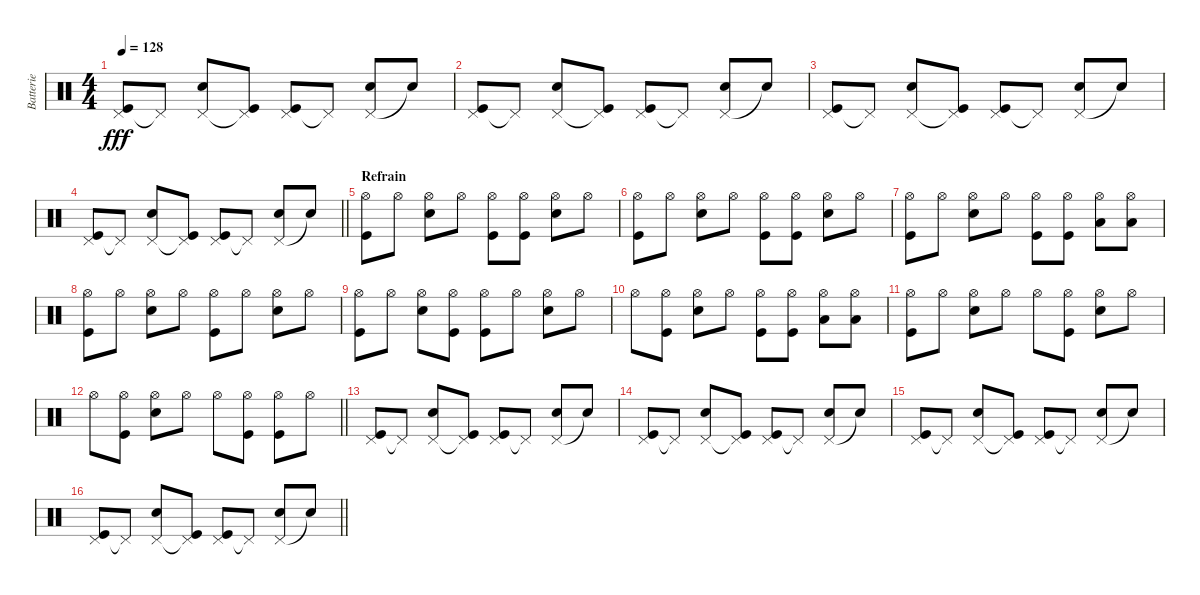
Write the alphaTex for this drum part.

\track ("Batterie" "Batterie") {instrument percussion}
\staff {score}
\articulation defaults
\ts (4 4)
\tempo 128
\clef neutral
\ks c
("Pedal Hi-Hat (hit)" "Kick (hit)").8{dy fff} "Pedal Hi-Hat (hit)"{t}.8 ("Pedal Hi-Hat (hit)" "Electric Snare (hit)").8 ("Pedal Hi-Hat (hit)"{t} "Kick (hit)").8 ("Pedal Hi-Hat (hit)" "Kick (hit)").8 "Pedal Hi-Hat (hit)"{t}.8 ("Pedal Hi-Hat (hit)" "Electric Snare (hit)").8 "Snare (hit)"{t}.8 |
("Pedal Hi-Hat (hit)" "Kick (hit)").8 "Pedal Hi-Hat (hit)"{t}.8 ("Pedal Hi-Hat (hit)" "Electric Snare (hit)").8 ("Pedal Hi-Hat (hit)"{t} "Kick (hit)").8 ("Pedal Hi-Hat (hit)" "Kick (hit)").8 "Pedal Hi-Hat (hit)"{t}.8 ("Pedal Hi-Hat (hit)" "Electric Snare (hit)").8 "Snare (hit)"{t}.8 |
("Pedal Hi-Hat (hit)" "Kick (hit)").8 "Pedal Hi-Hat (hit)"{t}.8 ("Pedal Hi-Hat (hit)" "Electric Snare (hit)").8 ("Pedal Hi-Hat (hit)"{t} "Kick (hit)").8 ("Pedal Hi-Hat (hit)" "Kick (hit)").8 "Pedal Hi-Hat (hit)"{t}.8 ("Pedal Hi-Hat (hit)" "Electric Snare (hit)").8 "Snare (hit)"{t}.8 |
\barLineRight lightlight
("Pedal Hi-Hat (hit)" "Kick (hit)").8 "Pedal Hi-Hat (hit)"{t}.8 ("Pedal Hi-Hat (hit)" "Electric Snare (hit)").8 ("Pedal Hi-Hat (hit)"{t} "Kick (hit)").8 ("Pedal Hi-Hat (hit)" "Kick (hit)").8 "Pedal Hi-Hat (hit)"{t}.8 ("Pedal Hi-Hat (hit)" "Electric Snare (hit)").8 "Snare (hit)"{t}.8 |
\section ("" "Refrain")
("Hi-Hat (open)" "Kick (hit)").8 "Hi-Hat (open)".8 ("Hi-Hat (open)" "Electric Snare (hit)").8 "Hi-Hat (open)".8 ("Hi-Hat (open)" "Kick (hit)").8 ("Hi-Hat (open)" "Kick (hit)").8 ("Hi-Hat (open)" "Electric Snare (hit)").8 "Hi-Hat (open)".8 |
("Hi-Hat (open)" "Kick (hit)").8 "Hi-Hat (open)".8 ("Hi-Hat (open)" "Electric Snare (hit)").8 "Hi-Hat (open)".8 ("Hi-Hat (open)" "Kick (hit)").8 ("Hi-Hat (open)" "Kick (hit)").8 ("Hi-Hat (open)" "Electric Snare (hit)").8 "Hi-Hat (open)".8 |
("Hi-Hat (open)" "Kick (hit)").8 "Hi-Hat (open)".8 ("Hi-Hat (open)" "Electric Snare (hit)").8 "Hi-Hat (open)".8 ("Hi-Hat (open)" "Kick (hit)").8 ("Hi-Hat (open)" "Kick (hit)").8 ("Hi-Hat (open)" "Low Tom (hit)").8 ("Hi-Hat (open)" "Low Tom (hit)").8 |
("Hi-Hat (open)" "Kick (hit)").8 "Hi-Hat (open)".8 ("Hi-Hat (open)" "Electric Snare (hit)").8 "Hi-Hat (open)".8 ("Hi-Hat (open)" "Kick (hit)").8 "Hi-Hat (open)".8 ("Hi-Hat (open)" "Electric Snare (hit)").8 "Hi-Hat (open)".8 |
("Hi-Hat (open)" "Kick (hit)").8 "Hi-Hat (open)".8 ("Hi-Hat (open)" "Electric Snare (hit)").8 ("Hi-Hat (open)" "Kick (hit)").8 ("Hi-Hat (open)" "Kick (hit)").8 "Hi-Hat (open)".8 ("Hi-Hat (open)" "Electric Snare (hit)").8 "Hi-Hat (open)".8 |
"Hi-Hat (open)".8 ("Hi-Hat (open)" "Kick (hit)").8 ("Hi-Hat (open)" "Electric Snare (hit)").8 "Hi-Hat (open)".8 ("Hi-Hat (open)" "Kick (hit)").8 ("Hi-Hat (open)" "Kick (hit)").8 ("Hi-Hat (open)" "Low Tom (hit)").8 ("Hi-Hat (open)" "Low Tom (hit)").8 |
("Hi-Hat (open)" "Kick (hit)").8 "Hi-Hat (open)".8 ("Hi-Hat (open)" "Electric Snare (hit)").8 "Hi-Hat (open)".8 "Hi-Hat (open)".8 ("Hi-Hat (open)" "Kick (hit)").8 ("Hi-Hat (open)" "Electric Snare (hit)").8 "Hi-Hat (open)".8 |
\barLineRight lightlight "Hi-Hat (open)".8
("Hi-Hat (open)" "Kick (hit)").8 ("Hi-Hat (open)" "Electric Snare (hit)").8 "Hi-Hat (open)".8 "Hi-Hat (open)".8 ("Hi-Hat (open)" "Kick (hit)").8 ("Hi-Hat (open)" "Kick (hit)").8 "Hi-Hat (open)".8 |
\section ("" "")
("Pedal Hi-Hat (hit)" "Kick (hit)").8 "Pedal Hi-Hat (hit)"{t}.8 ("Pedal Hi-Hat (hit)" "Electric Snare (hit)").8 ("Pedal Hi-Hat (hit)"{t} "Kick (hit)").8 ("Pedal Hi-Hat (hit)" "Kick (hit)").8 "Pedal Hi-Hat (hit)"{t}.8 ("Pedal Hi-Hat (hit)" "Electric Snare (hit)").8 "Snare (hit)"{t}.8 |
("Pedal Hi-Hat (hit)" "Kick (hit)").8 "Pedal Hi-Hat (hit)"{t}.8 ("Pedal Hi-Hat (hit)" "Electric Snare (hit)").8 ("Pedal Hi-Hat (hit)"{t} "Kick (hit)").8 ("Pedal Hi-Hat (hit)" "Kick (hit)").8 "Pedal Hi-Hat (hit)"{t}.8 ("Pedal Hi-Hat (hit)" "Electric Snare (hit)").8 "Snare (hit)"{t}.8 |
("Pedal Hi-Hat (hit)" "Kick (hit)").8 "Pedal Hi-Hat (hit)"{t}.8 ("Pedal Hi-Hat (hit)" "Electric Snare (hit)").8 ("Pedal Hi-Hat (hit)"{t} "Kick (hit)").8 ("Pedal Hi-Hat (hit)" "Kick (hit)").8 "Pedal Hi-Hat (hit)"{t}.8 ("Pedal Hi-Hat (hit)" "Electric Snare (hit)").8 "Snare (hit)"{t}.8 |
\barLineRight lightlight
("Pedal Hi-Hat (hit)" "Kick (hit)").8 "Pedal Hi-Hat (hit)"{t}.8 ("Pedal Hi-Hat (hit)" "Electric Snare (hit)").8 ("Pedal Hi-Hat (hit)"{t} "Kick (hit)").8 ("Pedal Hi-Hat (hit)" "Kick (hit)").8 "Pedal Hi-Hat (hit)"{t}.8 ("Pedal Hi-Hat (hit)" "Electric Snare (hit)").8 "Snare (hit)"{t}.8
